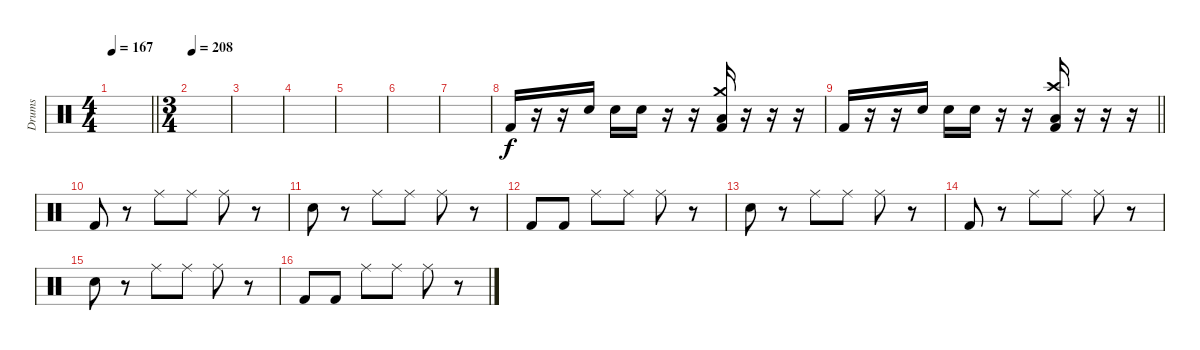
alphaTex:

\track ("Drums" "Drums") {instrument percussion}
\staff {score}
\articulation defaults
\ts (4 4)
\tempo 167
\clef neutral
\barLineRight lightlight
\ks c
|
\ts (3 4)
\tempo 208
|
|
|
|
|
|
"Kick (hit) 2".16{dy f} r.16 r.16 "Snare (hit) 2".16 "Snare (hit) 2".16 "Snare (hit) 2".16 r.16 r.16 ("Crash medium (hit)" "Low Tom (hit)" "Kick (hit) 2").16 r.16 r.16 r.16 |
\barLineRight lightlight "Kick (hit) 2".16
r.16 r.16 "Snare (hit) 2".16 "Snare (hit) 2".16 "Snare (hit) 2".16 r.16 r.16 ("Crash high (hit)" "Low Floor Tom (hit)" "Kick (hit) 2").16 r.16 r.16 r.16 |
"Kick (hit) 2".8 r.8 "Ride (middle)".8 "Ride (middle)".8 "Ride (middle)".8 r.8 |
"Snare (hit) 2".8 r.8 "Ride (middle)".8 "Ride (middle)".8 "Ride (middle)".8 r.8 |
"Kick (hit) 2".8 "Kick (hit) 2".8 "Ride (middle)".8 "Ride (middle)".8 "Ride (middle)".8 r.8 |
"Snare (hit) 2".8 r.8 "Ride (middle)".8 "Ride (middle)".8 "Ride (middle)".8 r.8 |
"Kick (hit) 2".8 r.8 "Ride (middle)".8 "Ride (middle)".8 "Ride (middle)".8 r.8 |
"Snare (hit) 2".8 r.8 "Ride (middle)".8 "Ride (middle)".8 "Ride (middle)".8 r.8 |
"Kick (hit) 2".8 "Kick (hit) 2".8 "Ride (middle)".8 "Ride (middle)".8 "Ride (middle)".8 r.8
